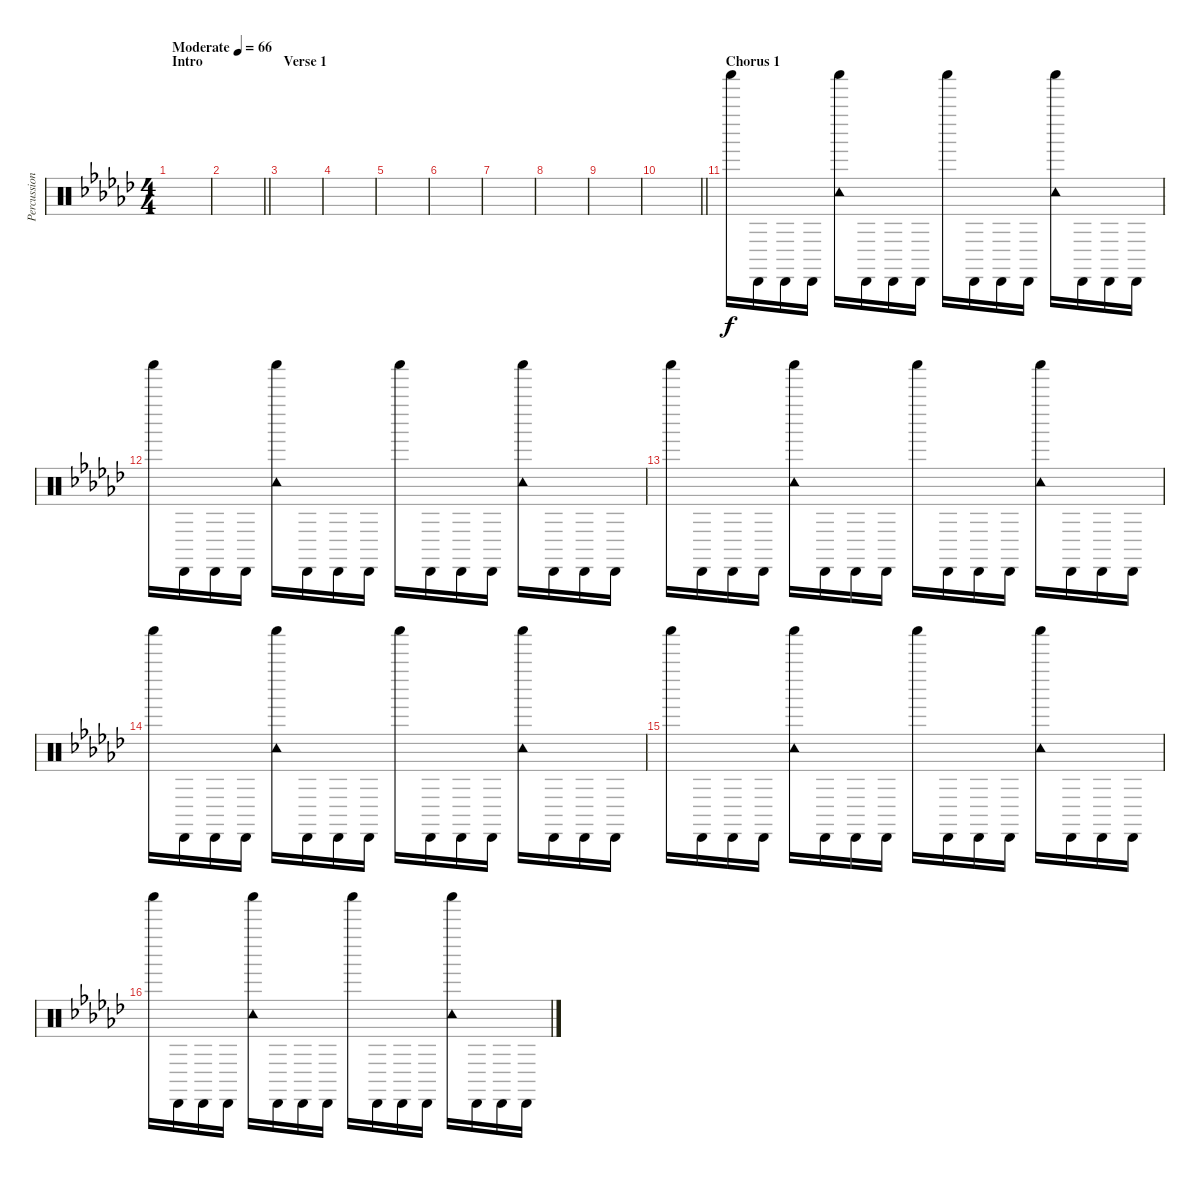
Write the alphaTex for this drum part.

\track ("Percussion" "Percussion") {instrument percussion}
\staff {score}
\articulation defaults
\ts (4 4)
\section ("" "Intro")
\tempo (66 "Moderate")
\clef neutral
\ks gb
|
\barLineRight lightlight
|
\section ("" "Verse 1")
|
|
|
|
|
|
|
\barLineRight lightlight
|
\section ("" "Chorus 1")
"Shaker (hit)".16 "Cabasa (hit)".16 "Cabasa (hit)".16 "Cabasa (hit)".16 ("Shaker (hit)" "Tambourine (hit)").16 "Cabasa (hit)".16 "Cabasa (hit)".16 "Cabasa (hit)".16 "Shaker (hit)".16 "Cabasa (hit)".16 "Cabasa (hit)".16 "Cabasa (hit)".16 ("Shaker (hit)" "Tambourine (hit)").16 "Cabasa (hit)".16 "Cabasa (hit)".16 "Cabasa (hit)".16 |
"Shaker (hit)".16 "Cabasa (hit)".16 "Cabasa (hit)".16 "Cabasa (hit)".16 ("Shaker (hit)" "Tambourine (hit)").16 "Cabasa (hit)".16 "Cabasa (hit)".16 "Cabasa (hit)".16 "Shaker (hit)".16 "Cabasa (hit)".16 "Cabasa (hit)".16 "Cabasa (hit)".16 ("Shaker (hit)" "Tambourine (hit)").16 "Cabasa (hit)".16 "Cabasa (hit)".16 "Cabasa (hit)".16 |
"Shaker (hit)".16 "Cabasa (hit)".16 "Cabasa (hit)".16 "Cabasa (hit)".16 ("Shaker (hit)" "Tambourine (hit)").16 "Cabasa (hit)".16 "Cabasa (hit)".16 "Cabasa (hit)".16 "Shaker (hit)".16 "Cabasa (hit)".16 "Cabasa (hit)".16 "Cabasa (hit)".16 ("Shaker (hit)" "Tambourine (hit)").16 "Cabasa (hit)".16 "Cabasa (hit)".16 "Cabasa (hit)".16 |
"Shaker (hit)".16 "Cabasa (hit)".16 "Cabasa (hit)".16 "Cabasa (hit)".16 ("Shaker (hit)" "Tambourine (hit)").16 "Cabasa (hit)".16 "Cabasa (hit)".16 "Cabasa (hit)".16 "Shaker (hit)".16 "Cabasa (hit)".16 "Cabasa (hit)".16 "Cabasa (hit)".16 ("Shaker (hit)" "Tambourine (hit)").16 "Cabasa (hit)".16 "Cabasa (hit)".16 "Cabasa (hit)".16 |
"Shaker (hit)".16 "Cabasa (hit)".16 "Cabasa (hit)".16 "Cabasa (hit)".16 ("Shaker (hit)" "Tambourine (hit)").16 "Cabasa (hit)".16 "Cabasa (hit)".16 "Cabasa (hit)".16 "Shaker (hit)".16 "Cabasa (hit)".16 "Cabasa (hit)".16 "Cabasa (hit)".16 ("Shaker (hit)" "Tambourine (hit)").16 "Cabasa (hit)".16 "Cabasa (hit)".16 "Cabasa (hit)".16 |
"Shaker (hit)".16 "Cabasa (hit)".16 "Cabasa (hit)".16 "Cabasa (hit)".16 ("Shaker (hit)" "Tambourine (hit)").16 "Cabasa (hit)".16 "Cabasa (hit)".16 "Cabasa (hit)".16 "Shaker (hit)".16 "Cabasa (hit)".16 "Cabasa (hit)".16 "Cabasa (hit)".16 ("Shaker (hit)" "Tambourine (hit)").16 "Cabasa (hit)".16 "Cabasa (hit)".16 "Cabasa (hit)".16
